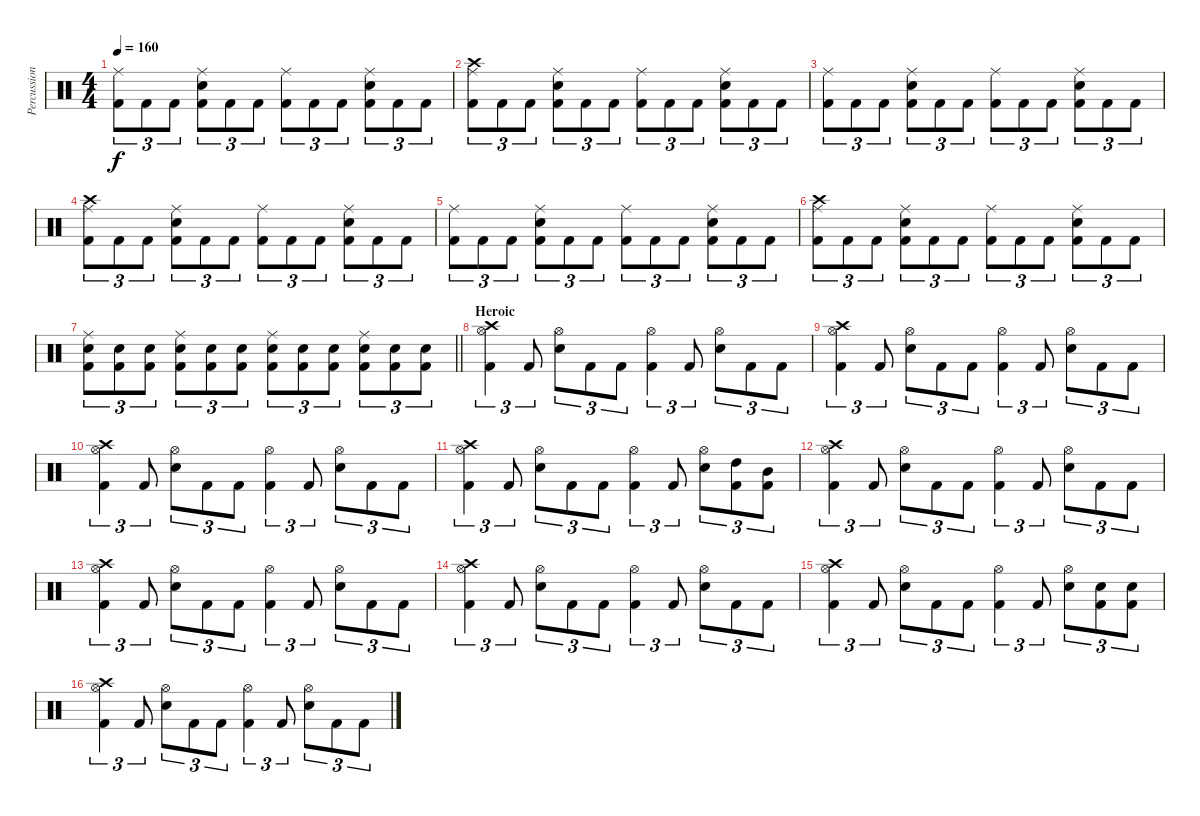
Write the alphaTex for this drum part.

\track ("Percussion" "Percussion") {instrument percussion}
\staff {score}
\articulation defaults
\ts (4 4)
\tempo 160
\clef neutral
\ks c
("Ride (middle)" "Kick (hit) 2").8{tu (3 2) dy f} "Kick (hit) 2".8{tu (3 2)} "Kick (hit) 2".8{tu (3 2)} ("Ride (middle)" "Snare (hit) 2" "Kick (hit) 2").8{tu (3 2)} "Kick (hit) 2".8{tu (3 2)} "Kick (hit) 2".8{tu (3 2)} ("Ride (middle)" "Kick (hit) 2").8{tu (3 2)} "Kick (hit) 2".8{tu (3 2)} "Kick (hit) 2".8{tu (3 2)} ("Ride (middle)" "Snare (hit) 2" "Kick (hit) 2").8{tu (3 2)} "Kick (hit) 2".8{tu (3 2)} "Kick (hit) 2".8{tu (3 2)} |
("Crash high (hit)" "Ride (middle)" "Kick (hit) 2").8{tu (3 2)} "Kick (hit) 2".8{tu (3 2)} "Kick (hit) 2".8{tu (3 2)} ("Ride (middle)" "Snare (hit) 2" "Kick (hit) 2").8{tu (3 2)} "Kick (hit) 2".8{tu (3 2)} "Kick (hit) 2".8{tu (3 2)} ("Ride (middle)" "Kick (hit) 2").8{tu (3 2)} "Kick (hit) 2".8{tu (3 2)} "Kick (hit) 2".8{tu (3 2)} ("Ride (middle)" "Snare (hit) 2" "Kick (hit) 2").8{tu (3 2)} "Kick (hit) 2".8{tu (3 2)} "Kick (hit) 2".8{tu (3 2)} |
("Ride (middle)" "Kick (hit) 2").8{tu (3 2)} "Kick (hit) 2".8{tu (3 2)} "Kick (hit) 2".8{tu (3 2)} ("Ride (middle)" "Snare (hit) 2" "Kick (hit) 2").8{tu (3 2)} "Kick (hit) 2".8{tu (3 2)} "Kick (hit) 2".8{tu (3 2)} ("Ride (middle)" "Kick (hit) 2").8{tu (3 2)} "Kick (hit) 2".8{tu (3 2)} "Kick (hit) 2".8{tu (3 2)} ("Ride (middle)" "Snare (hit) 2" "Kick (hit) 2").8{tu (3 2)} "Kick (hit) 2".8{tu (3 2)} "Kick (hit) 2".8{tu (3 2)} |
("Crash high (hit)" "Ride (middle)" "Kick (hit) 2").8{tu (3 2)} "Kick (hit) 2".8{tu (3 2)} "Kick (hit) 2".8{tu (3 2)} ("Ride (middle)" "Snare (hit) 2" "Kick (hit) 2").8{tu (3 2)} "Kick (hit) 2".8{tu (3 2)} "Kick (hit) 2".8{tu (3 2)} ("Ride (middle)" "Kick (hit) 2").8{tu (3 2)} "Kick (hit) 2".8{tu (3 2)} "Kick (hit) 2".8{tu (3 2)} ("Ride (middle)" "Snare (hit) 2" "Kick (hit) 2").8{tu (3 2)} "Kick (hit) 2".8{tu (3 2)} "Kick (hit) 2".8{tu (3 2)} |
("Ride (middle)" "Kick (hit) 2").8{tu (3 2)} "Kick (hit) 2".8{tu (3 2)} "Kick (hit) 2".8{tu (3 2)} ("Ride (middle)" "Snare (hit) 2" "Kick (hit) 2").8{tu (3 2)} "Kick (hit) 2".8{tu (3 2)} "Kick (hit) 2".8{tu (3 2)} ("Ride (middle)" "Kick (hit) 2").8{tu (3 2)} "Kick (hit) 2".8{tu (3 2)} "Kick (hit) 2".8{tu (3 2)} ("Ride (middle)" "Snare (hit) 2" "Kick (hit) 2").8{tu (3 2)} "Kick (hit) 2".8{tu (3 2)} "Kick (hit) 2".8{tu (3 2)} |
("Crash high (hit)" "Ride (middle)" "Kick (hit) 2").8{tu (3 2)} "Kick (hit) 2".8{tu (3 2)} "Kick (hit) 2".8{tu (3 2)} ("Ride (middle)" "Snare (hit) 2" "Kick (hit) 2").8{tu (3 2)} "Kick (hit) 2".8{tu (3 2)} "Kick (hit) 2".8{tu (3 2)} ("Ride (middle)" "Kick (hit) 2").8{tu (3 2)} "Kick (hit) 2".8{tu (3 2)} "Kick (hit) 2".8{tu (3 2)} ("Ride (middle)" "Snare (hit) 2" "Kick (hit) 2").8{tu (3 2)} "Kick (hit) 2".8{tu (3 2)} "Kick (hit) 2".8{tu (3 2)} |
\barLineRight lightlight
("Ride (middle)" "Snare (hit) 2" "Kick (hit) 2").8{tu (3 2)} ("Snare (hit) 2" "Kick (hit) 2").8{tu (3 2)} ("Snare (hit) 2" "Kick (hit) 2").8{tu (3 2)} ("Ride (middle)" "Snare (hit) 2" "Kick (hit) 2").8{tu (3 2)} ("Snare (hit) 2" "Kick (hit) 2").8{tu (3 2)} ("Snare (hit) 2" "Kick (hit) 2").8{tu (3 2)} ("Ride (middle)" "Snare (hit) 2" "Kick (hit) 2").8{tu (3 2)} ("Snare (hit) 2" "Kick (hit) 2").8{tu (3 2)} ("Snare (hit) 2" "Kick (hit) 2").8{tu (3 2)} ("Ride (middle)" "Snare (hit) 2" "Kick (hit) 2").8{tu (3 2)} ("Snare (hit) 2" "Kick (hit) 2").8{tu (3 2)} ("Snare (hit) 2" "Kick (hit) 2").8{tu (3 2)} |
\section ("" "Heroic")
("Crash high (hit)" "Hi-Hat (open)" "Kick (hit) 2").4{tu (3 2)} "Kick (hit) 2".8{tu (3 2)} ("Hi-Hat (open)" "Snare (hit) 2").8{tu (3 2)} "Kick (hit) 2".8{tu (3 2)} "Kick (hit) 2".8{tu (3 2)} ("Hi-Hat (open)" "Kick (hit) 2").4{tu (3 2)} "Kick (hit) 2".8{tu (3 2)} ("Hi-Hat (open)" "Snare (hit) 2").8{tu (3 2)} "Kick (hit) 2".8{tu (3 2)} "Kick (hit) 2".8{tu (3 2)} |
("Crash high (hit)" "Hi-Hat (open)" "Kick (hit) 2").4{tu (3 2)} "Kick (hit) 2".8{tu (3 2)} ("Hi-Hat (open)" "Snare (hit) 2").8{tu (3 2)} "Kick (hit) 2".8{tu (3 2)} "Kick (hit) 2".8{tu (3 2)} ("Hi-Hat (open)" "Kick (hit) 2").4{tu (3 2)} "Kick (hit) 2".8{tu (3 2)} ("Hi-Hat (open)" "Snare (hit) 2").8{tu (3 2)} "Kick (hit) 2".8{tu (3 2)} "Kick (hit) 2".8{tu (3 2)} |
("Crash high (hit)" "Hi-Hat (open)" "Kick (hit) 2").4{tu (3 2)} "Kick (hit) 2".8{tu (3 2)} ("Hi-Hat (open)" "Snare (hit) 2").8{tu (3 2)} "Kick (hit) 2".8{tu (3 2)} "Kick (hit) 2".8{tu (3 2)} ("Hi-Hat (open)" "Kick (hit) 2").4{tu (3 2)} "Kick (hit) 2".8{tu (3 2)} ("Hi-Hat (open)" "Snare (hit) 2").8{tu (3 2)} "Kick (hit) 2".8{tu (3 2)} "Kick (hit) 2".8{tu (3 2)} |
("Crash high (hit)" "Hi-Hat (open)" "Kick (hit) 2").4{tu (3 2)} "Kick (hit) 2".8{tu (3 2)} ("Hi-Hat (open)" "Snare (hit) 2").8{tu (3 2)} "Kick (hit) 2".8{tu (3 2)} "Kick (hit) 2".8{tu (3 2)} ("Hi-Hat (open)" "Kick (hit) 2").4{tu (3 2)} "Kick (hit) 2".8{tu (3 2)} ("Hi-Hat (open)" "Snare (hit) 2").8{tu (3 2)} ("High Tom (hit)" "Kick (hit) 2").8{tu (3 2)} ("Mid Tom (hit)" "Kick (hit) 2").8{tu (3 2)} |
("Crash high (hit)" "Hi-Hat (open)" "Kick (hit) 2").4{tu (3 2)} "Kick (hit) 2".8{tu (3 2)} ("Hi-Hat (open)" "Snare (hit) 2").8{tu (3 2)} "Kick (hit) 2".8{tu (3 2)} "Kick (hit) 2".8{tu (3 2)} ("Hi-Hat (open)" "Kick (hit) 2").4{tu (3 2)} "Kick (hit) 2".8{tu (3 2)} ("Hi-Hat (open)" "Snare (hit) 2").8{tu (3 2)} "Kick (hit) 2".8{tu (3 2)} "Kick (hit) 2".8{tu (3 2)} |
("Crash high (hit)" "Hi-Hat (open)" "Kick (hit) 2").4{tu (3 2)} "Kick (hit) 2".8{tu (3 2)} ("Hi-Hat (open)" "Snare (hit) 2").8{tu (3 2)} "Kick (hit) 2".8{tu (3 2)} "Kick (hit) 2".8{tu (3 2)} ("Hi-Hat (open)" "Kick (hit) 2").4{tu (3 2)} "Kick (hit) 2".8{tu (3 2)} ("Hi-Hat (open)" "Snare (hit) 2").8{tu (3 2)} "Kick (hit) 2".8{tu (3 2)} "Kick (hit) 2".8{tu (3 2)} |
("Crash high (hit)" "Hi-Hat (open)" "Kick (hit) 2").4{tu (3 2)} "Kick (hit) 2".8{tu (3 2)} ("Hi-Hat (open)" "Snare (hit) 2").8{tu (3 2)} "Kick (hit) 2".8{tu (3 2)} "Kick (hit) 2".8{tu (3 2)} ("Hi-Hat (open)" "Kick (hit) 2").4{tu (3 2)} "Kick (hit) 2".8{tu (3 2)} ("Hi-Hat (open)" "Snare (hit) 2").8{tu (3 2)} "Kick (hit) 2".8{tu (3 2)} "Kick (hit) 2".8{tu (3 2)} |
("Crash high (hit)" "Hi-Hat (open)" "Kick (hit) 2").4{tu (3 2)} "Kick (hit) 2".8{tu (3 2)} ("Hi-Hat (open)" "Snare (hit) 2").8{tu (3 2)} "Kick (hit) 2".8{tu (3 2)} "Kick (hit) 2".8{tu (3 2)} ("Hi-Hat (open)" "Kick (hit) 2").4{tu (3 2)} "Kick (hit) 2".8{tu (3 2)} ("Hi-Hat (open)" "Snare (hit) 2").8{tu (3 2)} ("Snare (hit) 2" "Kick (hit) 2").8{tu (3 2)} ("Snare (hit) 2" "Kick (hit) 2").8{tu (3 2)} |
("Crash high (hit)" "Hi-Hat (open)" "Kick (hit) 2").4{tu (3 2)} "Kick (hit) 2".8{tu (3 2)} ("Hi-Hat (open)" "Snare (hit) 2").8{tu (3 2)} "Kick (hit) 2".8{tu (3 2)} "Kick (hit) 2".8{tu (3 2)} ("Hi-Hat (open)" "Kick (hit) 2").4{tu (3 2)} "Kick (hit) 2".8{tu (3 2)} ("Hi-Hat (open)" "Snare (hit) 2").8{tu (3 2)} "Kick (hit) 2".8{tu (3 2)} "Kick (hit) 2".8{tu (3 2)}
